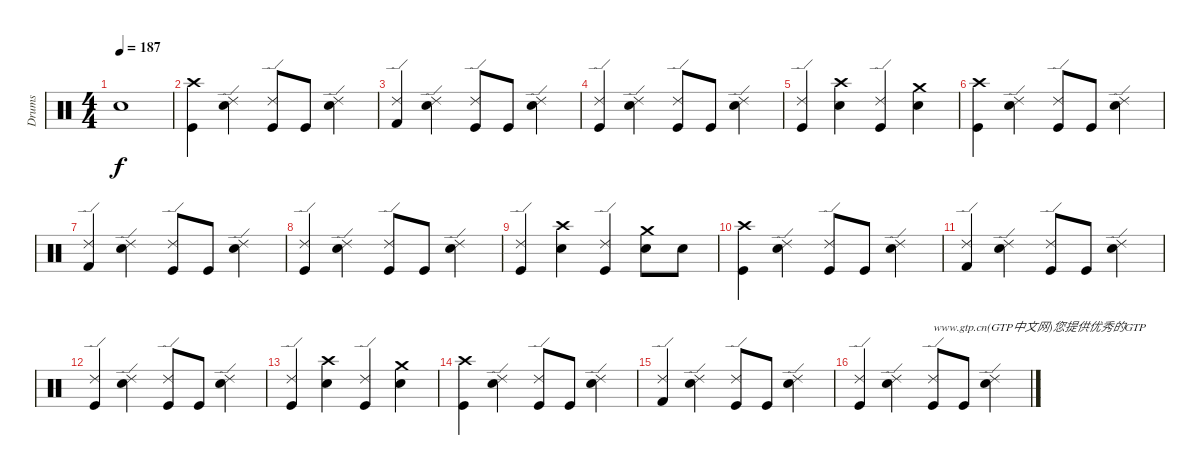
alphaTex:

\track ("Drums" "Drums") {instrument percussion}
\staff {score}
\articulation defaults
\ts (4 4)
\tempo 187
\clef neutral
\ks c "Snare (hit) 2".1{dy f}
|
("Crash high (hit)" "Kick (hit)").4 ("Ride (edge) 2" "Snare (hit) 2").4 ("Ride (edge) 2" "Kick (hit)").8 "Kick (hit)".8 ("Ride (edge) 2" "Snare (hit) 2").4 |
("Ride (edge) 2" "Kick (hit) 2").4 ("Ride (edge) 2" "Snare (hit) 2").4 ("Ride (edge) 2" "Kick (hit)").8 "Kick (hit)".8 ("Ride (edge) 2" "Snare (hit) 2").4 |
("Ride (edge) 2" "Kick (hit)").4 ("Ride (edge) 2" "Snare (hit) 2").4 ("Ride (edge) 2" "Kick (hit)").8 "Kick (hit)".8 ("Ride (edge) 2" "Snare (hit) 2").4 |
("Ride (edge) 2" "Kick (hit)").4 ("Crash high (hit)" "Snare (hit) 2").4 ("Ride (edge) 2" "Kick (hit)").4 ("Crash medium (hit)" "Snare (hit) 2").4 |
("Crash high (hit)" "Kick (hit)").4 ("Ride (edge) 2" "Snare (hit) 2").4 ("Ride (edge) 2" "Kick (hit)").8 "Kick (hit)".8 ("Ride (edge) 2" "Snare (hit) 2").4 |
("Ride (edge) 2" "Kick (hit) 2").4 ("Ride (edge) 2" "Snare (hit) 2").4 ("Ride (edge) 2" "Kick (hit)").8 "Kick (hit)".8 ("Ride (edge) 2" "Snare (hit) 2").4 |
("Ride (edge) 2" "Kick (hit)").4 ("Ride (edge) 2" "Snare (hit) 2").4 ("Ride (edge) 2" "Kick (hit)").8 "Kick (hit)".8 ("Ride (edge) 2" "Snare (hit) 2").4 |
("Ride (edge) 2" "Kick (hit)").4 ("Crash high (hit)" "Snare (hit) 2").4 ("Ride (edge) 2" "Kick (hit)").4 ("Crash medium (hit)" "Snare (hit) 2").8 "Snare (hit) 2".8 |
("Crash high (hit)" "Kick (hit)").4 ("Ride (edge) 2" "Snare (hit) 2").4 ("Ride (edge) 2" "Kick (hit)").8 "Kick (hit)".8 ("Ride (edge) 2" "Snare (hit) 2").4 |
("Ride (edge) 2" "Kick (hit) 2").4 ("Ride (edge) 2" "Snare (hit) 2").4 ("Ride (edge) 2" "Kick (hit)").8 "Kick (hit)".8 ("Ride (edge) 2" "Snare (hit) 2").4 |
("Ride (edge) 2" "Kick (hit)").4 ("Ride (edge) 2" "Snare (hit) 2").4 ("Ride (edge) 2" "Kick (hit)").8 "Kick (hit)".8 ("Ride (edge) 2" "Snare (hit) 2").4 |
("Ride (edge) 2" "Kick (hit)").4 ("Crash high (hit)" "Snare (hit) 2").4 ("Ride (edge) 2" "Kick (hit)").4 ("Crash medium (hit)" "Snare (hit) 2").4 |
("Crash high (hit)" "Kick (hit)").4 ("Ride (edge) 2" "Snare (hit) 2").4 ("Ride (edge) 2" "Kick (hit)").8 "Kick (hit)".8 ("Ride (edge) 2" "Snare (hit) 2").4 |
("Ride (edge) 2" "Kick (hit) 2").4 ("Ride (edge) 2" "Snare (hit) 2").4 ("Ride (edge) 2" "Kick (hit)").8 "Kick (hit)".8 ("Ride (edge) 2" "Snare (hit) 2").4 |
("Ride (edge) 2" "Kick (hit)").4 ("Ride (edge) 2" "Snare (hit) 2").4 ("Ride (edge) 2" "Kick (hit)").8{txt "www.gtp.cn(GTP中文网)您提供优秀的GTP"} "Kick (hit)".8 ("Ride (edge) 2" "Snare (hit) 2").4
